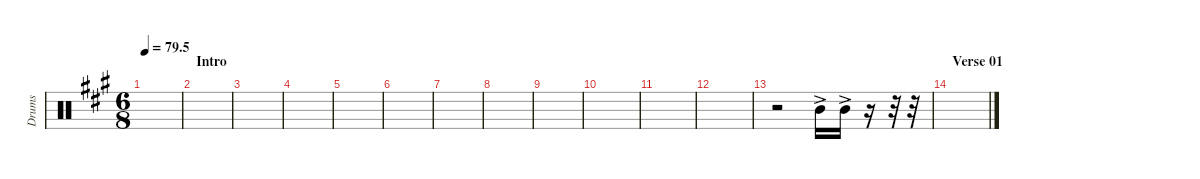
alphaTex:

\defaultSystemsLayout 4
\hideDynamics
\bracketExtendMode nobrackets
\otherSystemsTrackNameOrientation horizontal
\track ("Tom 02" "Drums") {instrument percussion}
\staff {score}
\articulation defaults
\ts (6 8)
\tempo
79.5
\accidentals auto
\clef neutral
\ottava regular
\simile none
\scale
0.474178
\ks a
|
\section ("" "Intro")
\scale
0.262911 |
\scale
0.262911 |
\scale
0.333333 |
\scale
0.333333 |
\scale
0.333333 |
\scale
0.333333 |
\scale
0.333333 |
\scale
0.333333 |
\scale
0.333333 |
\scale
0.333333 |
\scale
0.333333 |
\scale
0.333333 r.2 "Mid Tom (hit)"{ac acc forcenatural}.16 "Mid Tom (hit)"{ac acc forcenatural}.16 r.16 r.32 r.32 |
\section ("" "Verse 01")
\scale
0.333333 |
\scale
0.333333 |
\scale
0.333333
